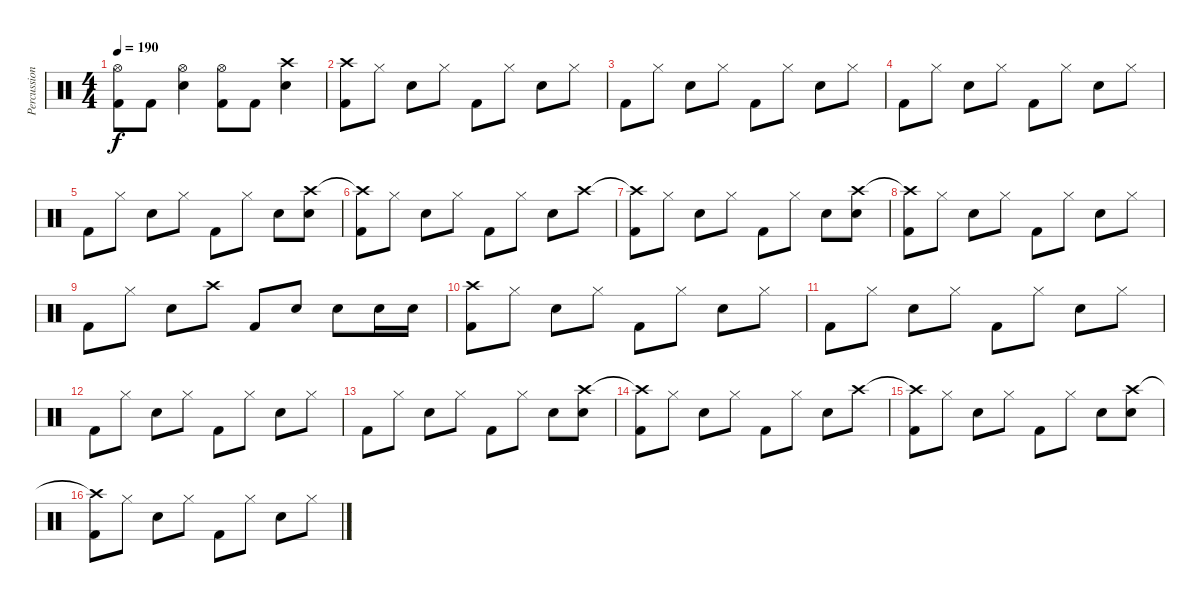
\track ("Percussion" "Percussion") {instrument percussion}
\staff {score}
\articulation defaults
\ts (4 4)
\tempo 190
\clef neutral
\ks c
("Hi-Hat (open)" "Kick (hit) 2").8{dy f} "Kick (hit) 2".8 ("Hi-Hat (open)" "Electric Snare (hit)").4 ("Hi-Hat (open)" "Kick (hit) 2").8 "Kick (hit) 2".8 ("Crash high (hit)" "Electric Snare (hit)").4 |
("Crash high (hit)" "Kick (hit) 2").8 "Hi-Hat (closed)".8 "Electric Snare (hit)".8 "Hi-Hat (closed)".8 "Kick (hit) 2".8 "Hi-Hat (closed)".8 "Electric Snare (hit)".8 "Hi-Hat (closed)".8 |
"Kick (hit) 2".8 "Hi-Hat (closed)".8 "Electric Snare (hit)".8 "Hi-Hat (closed)".8 "Kick (hit) 2".8 "Hi-Hat (closed)".8 "Electric Snare (hit)".8 "Hi-Hat (closed)".8 |
"Kick (hit) 2".8 "Hi-Hat (closed)".8 "Electric Snare (hit)".8 "Hi-Hat (closed)".8 "Kick (hit) 2".8 "Hi-Hat (closed)".8 "Electric Snare (hit)".8 "Hi-Hat (closed)".8 |
"Kick (hit) 2".8 "Hi-Hat (closed)".8 "Electric Snare (hit)".8 "Hi-Hat (closed)".8 "Kick (hit) 2".8 "Hi-Hat (closed)".8 "Electric Snare (hit)".8 ("Crash high (hit)" "Electric Snare (hit)").8 |
("Crash high (hit)"{t} "Kick (hit) 2").8 "Hi-Hat (closed)".8 "Electric Snare (hit)".8 "Hi-Hat (closed)".8 "Kick (hit) 2".8 "Hi-Hat (closed)".8 "Electric Snare (hit)".8 "Crash high (hit)".8 |
("Crash high (hit)"{t} "Kick (hit) 2").8 "Hi-Hat (closed)".8 "Electric Snare (hit)".8 "Hi-Hat (closed)".8 "Kick (hit) 2".8 "Hi-Hat (closed)".8 "Electric Snare (hit)".8 ("Crash high (hit)" "Electric Snare (hit)").8 |
("Crash high (hit)"{t} "Kick (hit) 2").8 "Hi-Hat (closed)".8 "Electric Snare (hit)".8 "Hi-Hat (closed)".8 "Kick (hit) 2".8 "Hi-Hat (closed)".8 "Electric Snare (hit)".8 "Hi-Hat (closed)".8 |
"Kick (hit) 2".8 "Hi-Hat (closed)".8 "Electric Snare (hit)".8 "Crash high (hit)".8 "Kick (hit) 2".8 "Electric Snare (hit)".8 "Electric Snare (hit)".8 "Electric Snare (hit)".16 "Electric Snare (hit)".16 |
("Crash high (hit)" "Kick (hit) 2").8 "Hi-Hat (closed)".8 "Electric Snare (hit)".8 "Hi-Hat (closed)".8 "Kick (hit) 2".8 "Hi-Hat (closed)".8 "Electric Snare (hit)".8 "Hi-Hat (closed)".8 |
"Kick (hit) 2".8 "Hi-Hat (closed)".8 "Electric Snare (hit)".8 "Hi-Hat (closed)".8 "Kick (hit) 2".8 "Hi-Hat (closed)".8 "Electric Snare (hit)".8 "Hi-Hat (closed)".8 |
"Kick (hit) 2".8 "Hi-Hat (closed)".8 "Electric Snare (hit)".8 "Hi-Hat (closed)".8 "Kick (hit) 2".8 "Hi-Hat (closed)".8 "Electric Snare (hit)".8 "Hi-Hat (closed)".8 |
"Kick (hit) 2".8 "Hi-Hat (closed)".8 "Electric Snare (hit)".8 "Hi-Hat (closed)".8 "Kick (hit) 2".8 "Hi-Hat (closed)".8 "Electric Snare (hit)".8 ("Crash high (hit)" "Electric Snare (hit)").8 |
("Crash high (hit)"{t} "Kick (hit) 2").8 "Hi-Hat (closed)".8 "Electric Snare (hit)".8 "Hi-Hat (closed)".8 "Kick (hit) 2".8 "Hi-Hat (closed)".8 "Electric Snare (hit)".8 "Crash high (hit)".8 |
("Crash high (hit)"{t} "Kick (hit) 2").8 "Hi-Hat (closed)".8 "Electric Snare (hit)".8 "Hi-Hat (closed)".8 "Kick (hit) 2".8 "Hi-Hat (closed)".8 "Electric Snare (hit)".8 ("Crash high (hit)" "Electric Snare (hit)").8 |
("Crash high (hit)"{t} "Kick (hit) 2").8 "Hi-Hat (closed)".8 "Electric Snare (hit)".8 "Hi-Hat (closed)".8 "Kick (hit) 2".8 "Hi-Hat (closed)".8 "Electric Snare (hit)".8 "Hi-Hat (closed)".8
